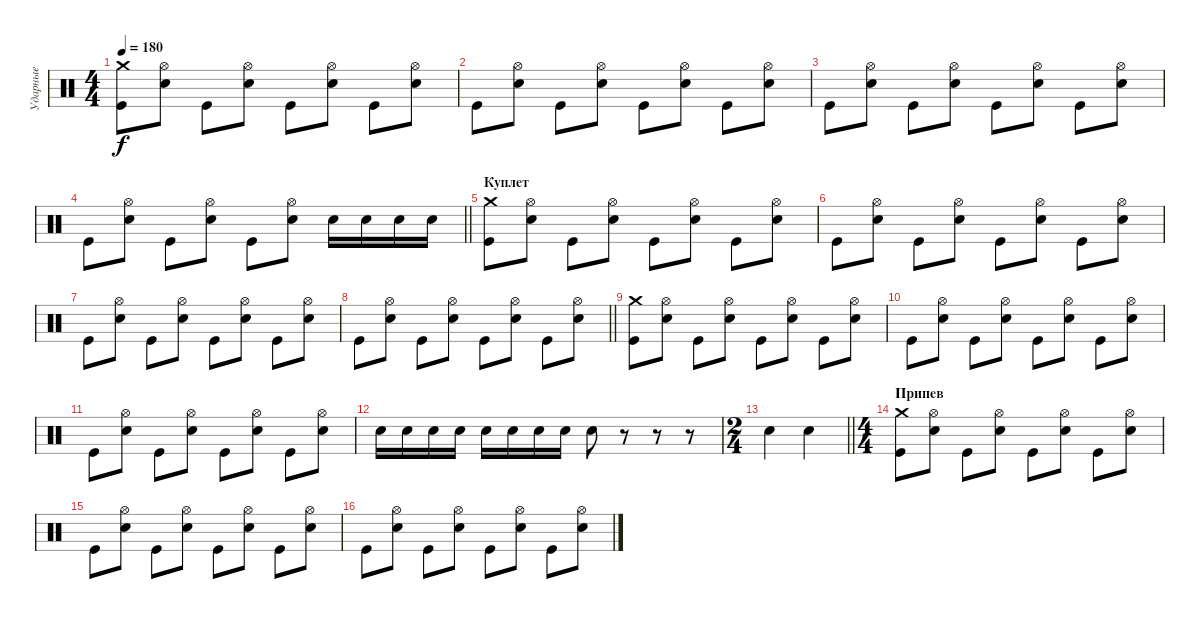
\track ("Ударные" "Ударные") {instrument percussion}
\staff {score}
\articulation defaults
\ts (4 4)
\tempo 180
\clef neutral
\ks c
("Crash medium (hit)" "Kick (hit)").8{dy f} ("Hi-Hat (open)" "Electric Snare (hit)").8 "Kick (hit)".8 ("Hi-Hat (open)" "Electric Snare (hit)").8 "Kick (hit)".8 ("Hi-Hat (open)" "Electric Snare (hit)").8 "Kick (hit)".8 ("Hi-Hat (open)" "Electric Snare (hit)").8 |
"Kick (hit)".8 ("Hi-Hat (open)" "Electric Snare (hit)").8 "Kick (hit)".8 ("Hi-Hat (open)" "Electric Snare (hit)").8 "Kick (hit)".8 ("Hi-Hat (open)" "Electric Snare (hit)").8 "Kick (hit)".8 ("Hi-Hat (open)" "Electric Snare (hit)").8 |
"Kick (hit)".8 ("Hi-Hat (open)" "Electric Snare (hit)").8 "Kick (hit)".8 ("Hi-Hat (open)" "Electric Snare (hit)").8 "Kick (hit)".8 ("Hi-Hat (open)" "Electric Snare (hit)").8 "Kick (hit)".8 ("Hi-Hat (open)" "Electric Snare (hit)").8 |
\barLineRight lightlight "Kick (hit)".8
("Hi-Hat (open)" "Electric Snare (hit)").8 "Kick (hit)".8 ("Hi-Hat (open)" "Electric Snare (hit)").8 "Kick (hit)".8 ("Hi-Hat (open)" "Electric Snare (hit)").8 "Electric Snare (hit)".16 "Electric Snare (hit)".16 "Electric Snare (hit)".16 "Electric Snare (hit)".16 |
\section ("" "Куплет")
("Crash medium (hit)" "Kick (hit)").8 ("Hi-Hat (open)" "Electric Snare (hit)").8 "Kick (hit)".8 ("Hi-Hat (open)" "Electric Snare (hit)").8 "Kick (hit)".8 ("Hi-Hat (open)" "Electric Snare (hit)").8 "Kick (hit)".8 ("Hi-Hat (open)" "Electric Snare (hit)").8 |
"Kick (hit)".8 ("Hi-Hat (open)" "Electric Snare (hit)").8 "Kick (hit)".8 ("Hi-Hat (open)" "Electric Snare (hit)").8 "Kick (hit)".8 ("Hi-Hat (open)" "Electric Snare (hit)").8 "Kick (hit)".8 ("Hi-Hat (open)" "Electric Snare (hit)").8 |
"Kick (hit)".8 ("Hi-Hat (open)" "Electric Snare (hit)").8 "Kick (hit)".8 ("Hi-Hat (open)" "Electric Snare (hit)").8 "Kick (hit)".8 ("Hi-Hat (open)" "Electric Snare (hit)").8 "Kick (hit)".8 ("Hi-Hat (open)" "Electric Snare (hit)").8 |
\barLineRight lightlight "Kick (hit)".8
("Hi-Hat (open)" "Electric Snare (hit)").8 "Kick (hit)".8 ("Hi-Hat (open)" "Electric Snare (hit)").8 "Kick (hit)".8 ("Hi-Hat (open)" "Electric Snare (hit)").8 "Kick (hit)".8 ("Hi-Hat (open)" "Electric Snare (hit)").8 |
\section ("" " ")
("Crash medium (hit)" "Kick (hit)").8 ("Hi-Hat (open)" "Electric Snare (hit)").8 "Kick (hit)".8 ("Hi-Hat (open)" "Electric Snare (hit)").8 "Kick (hit)".8 ("Hi-Hat (open)" "Electric Snare (hit)").8 "Kick (hit)".8 ("Hi-Hat (open)" "Electric Snare (hit)").8 |
"Kick (hit)".8 ("Hi-Hat (open)" "Electric Snare (hit)").8 "Kick (hit)".8 ("Hi-Hat (open)" "Electric Snare (hit)").8 "Kick (hit)".8 ("Hi-Hat (open)" "Electric Snare (hit)").8 "Kick (hit)".8 ("Hi-Hat (open)" "Electric Snare (hit)").8 |
"Kick (hit)".8 ("Hi-Hat (open)" "Electric Snare (hit)").8 "Kick (hit)".8 ("Hi-Hat (open)" "Electric Snare (hit)").8 "Kick (hit)".8 ("Hi-Hat (open)" "Electric Snare (hit)").8 "Kick (hit)".8 ("Hi-Hat (open)" "Electric Snare (hit)").8 |
"Electric Snare (hit)".16 "Electric Snare (hit)".16 "Electric Snare (hit)".16 "Electric Snare (hit)".16 "Electric Snare (hit)".16 "Electric Snare (hit)".16 "Electric Snare (hit)".16 "Electric Snare (hit)".16 "Electric Snare (hit)".8 r.8 r.8 r.8 |
\ts (2 4)
\barLineRight lightlight "Electric Snare (hit)".4 "Electric Snare (hit)".4
|
\ts (4 4)
\section ("" "Припев")
("Crash medium (hit)" "Kick (hit)").8 ("Hi-Hat (open)" "Electric Snare (hit)").8 "Kick (hit)".8 ("Hi-Hat (open)" "Electric Snare (hit)").8 "Kick (hit)".8 ("Hi-Hat (open)" "Electric Snare (hit)").8 "Kick (hit)".8 ("Hi-Hat (open)" "Electric Snare (hit)").8 |
"Kick (hit)".8 ("Hi-Hat (open)" "Electric Snare (hit)").8 "Kick (hit)".8 ("Hi-Hat (open)" "Electric Snare (hit)").8 "Kick (hit)".8 ("Hi-Hat (open)" "Electric Snare (hit)").8 "Kick (hit)".8 ("Hi-Hat (open)" "Electric Snare (hit)").8 |
"Kick (hit)".8 ("Hi-Hat (open)" "Electric Snare (hit)").8 "Kick (hit)".8 ("Hi-Hat (open)" "Electric Snare (hit)").8 "Kick (hit)".8 ("Hi-Hat (open)" "Electric Snare (hit)").8 "Kick (hit)".8 ("Hi-Hat (open)" "Electric Snare (hit)").8
